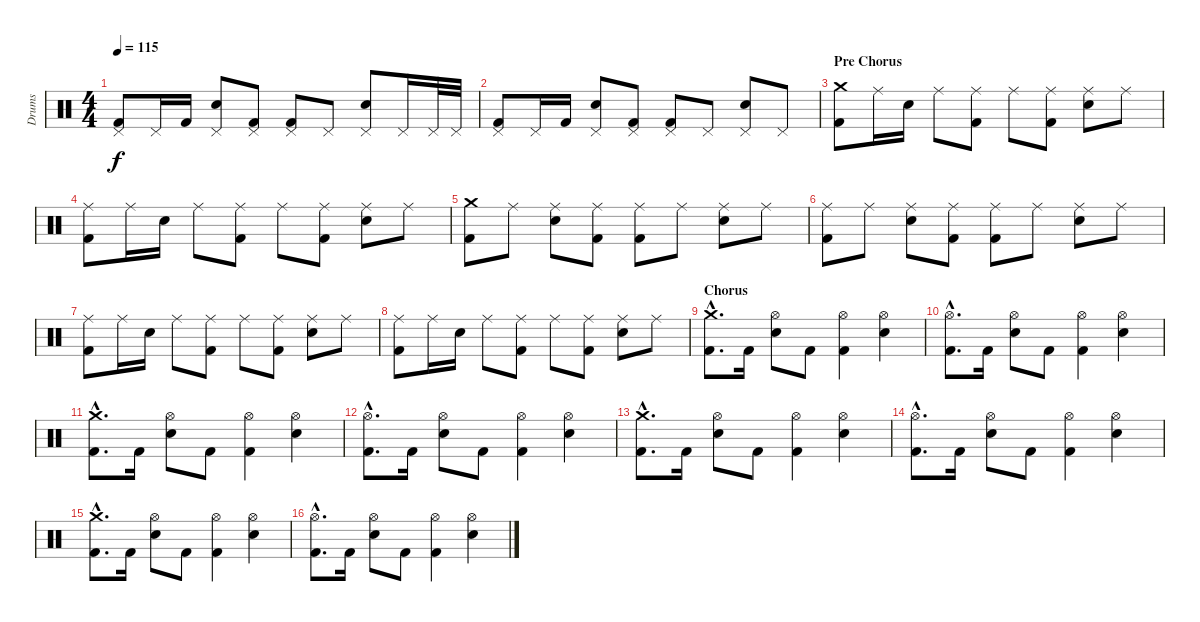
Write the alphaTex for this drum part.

\track ("Drums" "Drums") {instrument percussion}
\staff {score}
\articulation defaults
\ts (4 4)
\tempo 115
\clef neutral
\ks c
("Pedal Hi-Hat (hit)" "Kick (hit) 2").8{dy f} "Pedal Hi-Hat (hit)".16 "Kick (hit) 2".16 ("Pedal Hi-Hat (hit)" "Electric Snare (hit)").8 ("Pedal Hi-Hat (hit)" "Kick (hit) 2").8 ("Pedal Hi-Hat (hit)" "Kick (hit) 2").8 "Pedal Hi-Hat (hit)".8 ("Pedal Hi-Hat (hit)" "Electric Snare (hit)").8 "Pedal Hi-Hat (hit)".16 "Pedal Hi-Hat (hit)".32 "Pedal Hi-Hat (hit)".32 |
("Pedal Hi-Hat (hit)" "Kick (hit) 2").8 "Pedal Hi-Hat (hit)".16 "Kick (hit) 2".16 ("Pedal Hi-Hat (hit)" "Electric Snare (hit)").8 ("Pedal Hi-Hat (hit)" "Kick (hit) 2").8 ("Pedal Hi-Hat (hit)" "Kick (hit) 2").8 "Pedal Hi-Hat (hit)".8 ("Pedal Hi-Hat (hit)" "Electric Snare (hit)").8 "Pedal Hi-Hat (hit)".8 |
\section ("" "Pre Chorus")
("Crash medium (hit)" "Kick (hit) 2").8 "Ride (middle)".16 "Electric Snare (hit)".16 "Ride (middle)".8 ("Ride (middle)" "Kick (hit) 2").8 "Ride (middle)".8 ("Ride (middle)" "Kick (hit) 2").8 ("Ride (middle)" "Electric Snare (hit)").8 "Ride (middle)".8 |
("Ride (middle)" "Kick (hit) 2").8 "Ride (middle)".16 "Electric Snare (hit)".16 "Ride (middle)".8 ("Ride (middle)" "Kick (hit) 2").8 "Ride (middle)".8 ("Ride (middle)" "Kick (hit) 2").8 ("Ride (middle)" "Electric Snare (hit)").8 "Ride (middle)".8 |
("Crash medium (hit)" "Kick (hit) 2").8 "Ride (middle)".8 ("Ride (middle)" "Electric Snare (hit)").8 ("Ride (middle)" "Kick (hit) 2").8 ("Ride (middle)" "Kick (hit) 2").8 "Ride (middle)".8 ("Ride (middle)" "Electric Snare (hit)").8 "Ride (middle)".8 |
("Ride (middle)" "Kick (hit) 2").8 "Ride (middle)".8 ("Ride (middle)" "Electric Snare (hit)").8 ("Ride (middle)" "Kick (hit) 2").8 ("Ride (middle)" "Kick (hit) 2").8 "Ride (middle)".8 ("Ride (middle)" "Electric Snare (hit)").8 "Ride (middle)".8 |
("Ride (middle)" "Kick (hit) 2").8 "Ride (middle)".16 "Electric Snare (hit)".16 "Ride (middle)".8 ("Ride (middle)" "Kick (hit) 2").8 "Ride (middle)".8 ("Ride (middle)" "Kick (hit) 2").8 ("Ride (middle)" "Electric Snare (hit)").8 "Ride (middle)".8 |
("Ride (middle)" "Kick (hit) 2").8 "Ride (middle)".16 "Electric Snare (hit)".16 "Ride (middle)".8 ("Ride (middle)" "Kick (hit) 2").8 "Ride (middle)".8 ("Ride (middle)" "Kick (hit) 2").8 ("Ride (middle)" "Electric Snare (hit)").8 "Ride (middle)".8 |
\section ("" "Chorus")
("Crash medium (hit)"{hac} "Kick (hit) 2"{hac}).8{d} "Kick (hit) 2".16 ("Hi-Hat (open)" "Electric Snare (hit)").8 "Kick (hit) 2".8 ("Hi-Hat (open)" "Kick (hit) 2").4 ("Hi-Hat (open)" "Electric Snare (hit)").4 |
("Hi-Hat (open)"{hac} "Kick (hit) 2"{hac}).8{d} "Kick (hit) 2".16 ("Hi-Hat (open)" "Electric Snare (hit)").8 "Kick (hit) 2".8 ("Hi-Hat (open)" "Kick (hit) 2").4 ("Hi-Hat (open)" "Electric Snare (hit)").4 |
("Crash medium (hit)"{hac} "Kick (hit) 2"{hac}).8{d} "Kick (hit) 2".16 ("Hi-Hat (open)" "Electric Snare (hit)").8 "Kick (hit) 2".8 ("Hi-Hat (open)" "Kick (hit) 2").4 ("Hi-Hat (open)" "Electric Snare (hit)").4 |
("Hi-Hat (open)"{hac} "Kick (hit) 2"{hac}).8{d} "Kick (hit) 2".16 ("Hi-Hat (open)" "Electric Snare (hit)").8 "Kick (hit) 2".8 ("Hi-Hat (open)" "Kick (hit) 2").4 ("Hi-Hat (open)" "Electric Snare (hit)").4 |
("Crash medium (hit)"{hac} "Kick (hit) 2"{hac}).8{d} "Kick (hit) 2".16 ("Hi-Hat (open)" "Electric Snare (hit)").8 "Kick (hit) 2".8 ("Hi-Hat (open)" "Kick (hit) 2").4 ("Hi-Hat (open)" "Electric Snare (hit)").4 |
("Hi-Hat (open)"{hac} "Kick (hit) 2"{hac}).8{d} "Kick (hit) 2".16 ("Hi-Hat (open)" "Electric Snare (hit)").8 "Kick (hit) 2".8 ("Hi-Hat (open)" "Kick (hit) 2").4 ("Hi-Hat (open)" "Electric Snare (hit)").4 |
("Crash medium (hit)"{hac} "Kick (hit) 2"{hac}).8{d} "Kick (hit) 2".16 ("Hi-Hat (open)" "Electric Snare (hit)").8 "Kick (hit) 2".8 ("Hi-Hat (open)" "Kick (hit) 2").4 ("Hi-Hat (open)" "Electric Snare (hit)").4 |
("Hi-Hat (open)"{hac} "Kick (hit) 2"{hac}).8{d} "Kick (hit) 2".16 ("Hi-Hat (open)" "Electric Snare (hit)").8 "Kick (hit) 2".8 ("Hi-Hat (open)" "Kick (hit) 2").4 ("Hi-Hat (open)" "Electric Snare (hit)").4
